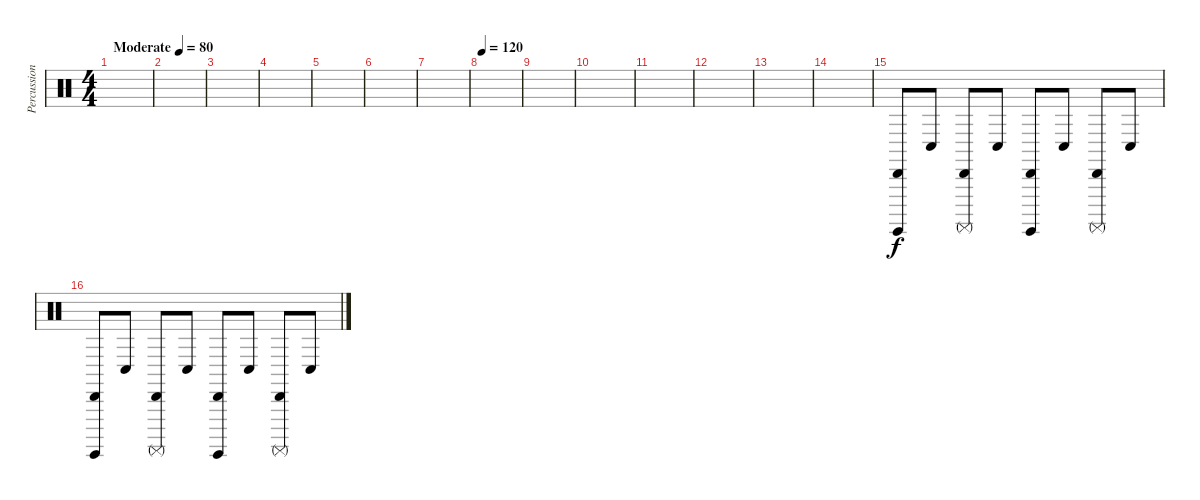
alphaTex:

\track ("Percussion" "Percussion") {instrument percussion}
\staff {score}
\articulation defaults
\ts (4 4)
\tempo (80 "Moderate")
\clef neutral
\ks c
|
|
|
|
|
|
|
\tempo 120
|
|
|
|
|
|
|
("Surdo (hit)" "Cabasa (hit)").8{volume 10} "Conga low (hit)".8 ("Surdo (mute)" "Cabasa (hit)").8 "Conga low (hit)".8 ("Surdo (hit)" "Cabasa (hit)").8 "Conga low (hit)".8 ("Surdo (mute)" "Cabasa (hit)").8 "Conga low (hit)".8 |
("Surdo (hit)" "Cabasa (hit)").8 "Conga low (hit)".8 ("Surdo (mute)" "Cabasa (hit)").8 "Conga low (hit)".8 ("Surdo (hit)" "Cabasa (hit)").8 "Conga low (hit)".8 ("Surdo (mute)" "Cabasa (hit)").8 "Conga low (hit)".8
